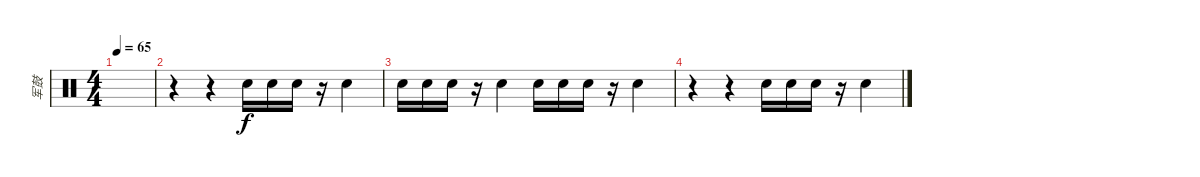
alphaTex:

\track ("军鼓" "军鼓") {instrument percussion}
\staff {score}
\articulation defaults
\ts (4 4)
\tempo 65
\clef neutral
\ks c
|
r.4 r.4 "Electric Snare (hit)".16 "Electric Snare (hit)".16 "Electric Snare (hit)".16 r.16 "Electric Snare (hit)".4 |
"Electric Snare (hit)".16 "Electric Snare (hit)".16 "Electric Snare (hit)".16 r.16 "Electric Snare (hit)".4 "Electric Snare (hit)".16 "Electric Snare (hit)".16 "Electric Snare (hit)".16 r.16 "Electric Snare (hit)".4 |
r.4 r.4 "Electric Snare (hit)".16 "Electric Snare (hit)".16 "Electric Snare (hit)".16 r.16 "Electric Snare (hit)".4
